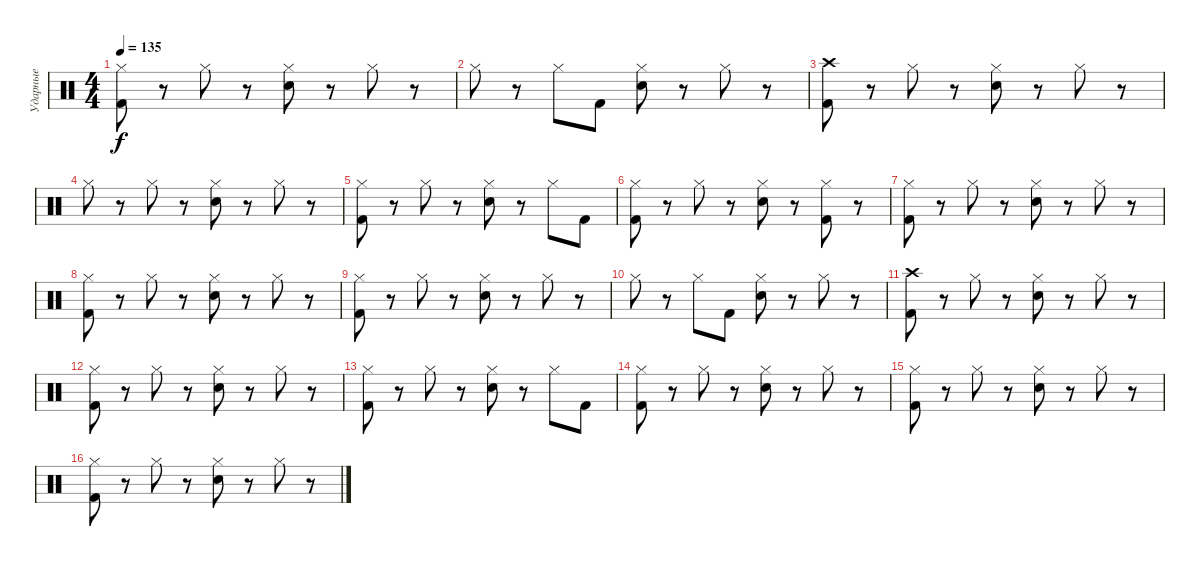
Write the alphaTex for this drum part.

\track ("Ударные" "Ударные") {instrument percussion}
\staff {score}
\articulation defaults
\ts (4 4)
\tempo 135
\clef neutral
\ks c
("Hi-Hat (closed)" "Kick (hit) 2").8{dy f} r.8 "Hi-Hat (closed)".8 r.8 ("Hi-Hat (closed)" "Electric Snare (hit)").8 r.8 "Hi-Hat (closed)".8 r.8 |
"Hi-Hat (closed)".8 r.8 "Hi-Hat (closed)".8 "Kick (hit) 2".8 ("Hi-Hat (closed)" "Electric Snare (hit)").8 r.8 "Hi-Hat (closed)".8 r.8 |
("Kick (hit) 2" "Crash high (hit)").8 r.8 "Hi-Hat (closed)".8 r.8 ("Hi-Hat (closed)" "Electric Snare (hit)").8 r.8 "Hi-Hat (closed)".8 r.8 |
"Hi-Hat (closed)".8 r.8 "Hi-Hat (closed)".8 r.8 ("Hi-Hat (closed)" "Electric Snare (hit)").8 r.8 "Hi-Hat (closed)".8 r.8 |
("Hi-Hat (closed)" "Kick (hit) 2").8 r.8 "Hi-Hat (closed)".8 r.8 ("Hi-Hat (closed)" "Electric Snare (hit)").8 r.8 "Hi-Hat (closed)".8 "Kick (hit) 2".8 |
("Hi-Hat (closed)" "Kick (hit) 2").8 r.8 "Hi-Hat (closed)".8 r.8 ("Hi-Hat (closed)" "Electric Snare (hit)").8 r.8 ("Hi-Hat (closed)" "Kick (hit) 2").8 r.8 |
("Hi-Hat (closed)" "Kick (hit) 2").8 r.8 "Hi-Hat (closed)".8 r.8 ("Hi-Hat (closed)" "Electric Snare (hit)").8 r.8 "Hi-Hat (closed)".8 r.8 |
("Hi-Hat (closed)" "Kick (hit) 2").8 r.8 "Hi-Hat (closed)".8 r.8 ("Hi-Hat (closed)" "Electric Snare (hit)").8 r.8 "Hi-Hat (closed)".8 r.8 |
("Hi-Hat (closed)" "Kick (hit) 2").8 r.8 "Hi-Hat (closed)".8 r.8 ("Hi-Hat (closed)" "Electric Snare (hit)").8 r.8 "Hi-Hat (closed)".8 r.8 |
"Hi-Hat (closed)".8 r.8 "Hi-Hat (closed)".8 "Kick (hit) 2".8 ("Hi-Hat (closed)" "Electric Snare (hit)").8 r.8 "Hi-Hat (closed)".8 r.8 |
("Kick (hit) 2" "Crash high (hit)").8 r.8 "Hi-Hat (closed)".8 r.8 ("Hi-Hat (closed)" "Electric Snare (hit)").8 r.8 "Hi-Hat (closed)".8 r.8 |
("Hi-Hat (closed)" "Kick (hit) 2").8 r.8 "Hi-Hat (closed)".8 r.8 ("Hi-Hat (closed)" "Electric Snare (hit)").8 r.8 "Hi-Hat (closed)".8 r.8 |
("Hi-Hat (closed)" "Kick (hit) 2").8 r.8 "Hi-Hat (closed)".8 r.8 ("Hi-Hat (closed)" "Electric Snare (hit)").8 r.8 "Hi-Hat (closed)".8 "Kick (hit) 2".8 |
("Hi-Hat (closed)" "Kick (hit) 2").8 r.8 "Hi-Hat (closed)".8 r.8 ("Hi-Hat (closed)" "Electric Snare (hit)").8 r.8 "Hi-Hat (closed)".8 r.8 |
("Hi-Hat (closed)" "Kick (hit) 2").8 r.8 "Hi-Hat (closed)".8 r.8 ("Hi-Hat (closed)" "Electric Snare (hit)").8 r.8 "Hi-Hat (closed)".8 r.8 |
("Hi-Hat (closed)" "Kick (hit) 2").8 r.8 "Hi-Hat (closed)".8 r.8 ("Hi-Hat (closed)" "Electric Snare (hit)").8 r.8 "Hi-Hat (closed)".8 r.8
